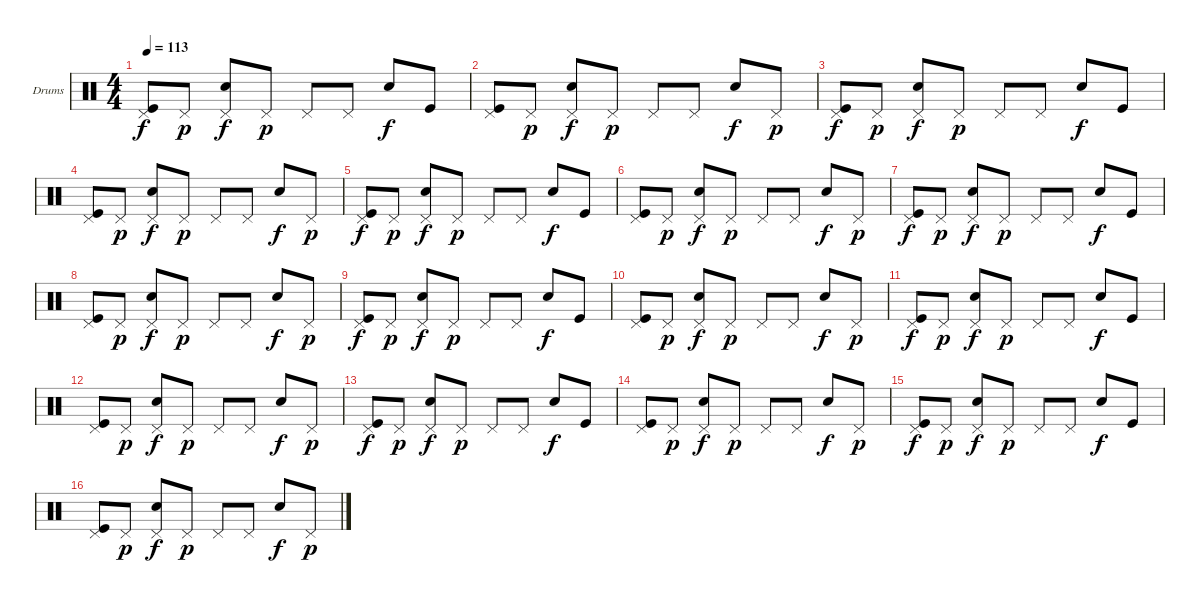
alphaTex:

\defaultSystemsLayout 4
\bracketExtendMode groupsimilarinstruments
\firstSystemTrackNameOrientation horizontal
\otherSystemsTrackNameOrientation horizontal
\track ("Е. Кулаков" "Drums") {instrument percussion}
\staff {score}
\articulation defaults
\ts (4 4)
\tempo 113
\clef neutral
\ks c
("Kick (hit)" "Pedal Hi-Hat (hit)").8{dy f} "Pedal Hi-Hat (hit)".8{dy p} ("Snare (hit) 2" "Pedal Hi-Hat (hit)").8{dy f} "Pedal Hi-Hat (hit)".8{dy p} "Pedal Hi-Hat (hit)".8 "Pedal Hi-Hat (hit)".8 "Snare (hit) 2".8{dy f} "Kick (hit)".8 |
("Kick (hit)" "Pedal Hi-Hat (hit)").8 "Pedal Hi-Hat (hit)".8{dy p} ("Snare (hit) 2" "Pedal Hi-Hat (hit)").8{dy f} "Pedal Hi-Hat (hit)".8{dy p} "Pedal Hi-Hat (hit)".8 "Pedal Hi-Hat (hit)".8 "Snare (hit) 2".8{dy f} "Pedal Hi-Hat (hit)".8{dy p} |
("Kick (hit)" "Pedal Hi-Hat (hit)").8{dy f} "Pedal Hi-Hat (hit)".8{dy p} ("Snare (hit) 2" "Pedal Hi-Hat (hit)").8{dy f} "Pedal Hi-Hat (hit)".8{dy p} "Pedal Hi-Hat (hit)".8 "Pedal Hi-Hat (hit)".8 "Snare (hit) 2".8{dy f} "Kick (hit)".8 |
("Kick (hit)" "Pedal Hi-Hat (hit)").8 "Pedal Hi-Hat (hit)".8{dy p} ("Snare (hit) 2" "Pedal Hi-Hat (hit)").8{dy f} "Pedal Hi-Hat (hit)".8{dy p} "Pedal Hi-Hat (hit)".8 "Pedal Hi-Hat (hit)".8 "Snare (hit) 2".8{dy f} "Pedal Hi-Hat (hit)".8{dy p} |
("Kick (hit)" "Pedal Hi-Hat (hit)").8{dy f} "Pedal Hi-Hat (hit)".8{dy p} ("Snare (hit) 2" "Pedal Hi-Hat (hit)").8{dy f} "Pedal Hi-Hat (hit)".8{dy p} "Pedal Hi-Hat (hit)".8 "Pedal Hi-Hat (hit)".8 "Snare (hit) 2".8{dy f} "Kick (hit)".8 |
("Kick (hit)" "Pedal Hi-Hat (hit)").8 "Pedal Hi-Hat (hit)".8{dy p} ("Snare (hit) 2" "Pedal Hi-Hat (hit)").8{dy f} "Pedal Hi-Hat (hit)".8{dy p} "Pedal Hi-Hat (hit)".8 "Pedal Hi-Hat (hit)".8 "Snare (hit) 2".8{dy f} "Pedal Hi-Hat (hit)".8{dy p} |
("Kick (hit)" "Pedal Hi-Hat (hit)").8{dy f} "Pedal Hi-Hat (hit)".8{dy p} ("Snare (hit) 2" "Pedal Hi-Hat (hit)").8{dy f} "Pedal Hi-Hat (hit)".8{dy p} "Pedal Hi-Hat (hit)".8 "Pedal Hi-Hat (hit)".8 "Snare (hit) 2".8{dy f} "Kick (hit)".8 |
("Kick (hit)" "Pedal Hi-Hat (hit)").8 "Pedal Hi-Hat (hit)".8{dy p} ("Snare (hit) 2" "Pedal Hi-Hat (hit)").8{dy f} "Pedal Hi-Hat (hit)".8{dy p} "Pedal Hi-Hat (hit)".8 "Pedal Hi-Hat (hit)".8 "Snare (hit) 2".8{dy f} "Pedal Hi-Hat (hit)".8{dy p} |
("Kick (hit)" "Pedal Hi-Hat (hit)").8{dy f} "Pedal Hi-Hat (hit)".8{dy p} ("Snare (hit) 2" "Pedal Hi-Hat (hit)").8{dy f} "Pedal Hi-Hat (hit)".8{dy p} "Pedal Hi-Hat (hit)".8 "Pedal Hi-Hat (hit)".8 "Snare (hit) 2".8{dy f} "Kick (hit)".8 |
("Kick (hit)" "Pedal Hi-Hat (hit)").8 "Pedal Hi-Hat (hit)".8{dy p} ("Snare (hit) 2" "Pedal Hi-Hat (hit)").8{dy f} "Pedal Hi-Hat (hit)".8{dy p} "Pedal Hi-Hat (hit)".8 "Pedal Hi-Hat (hit)".8 "Snare (hit) 2".8{dy f} "Pedal Hi-Hat (hit)".8{dy p} |
("Kick (hit)" "Pedal Hi-Hat (hit)").8{dy f} "Pedal Hi-Hat (hit)".8{dy p} ("Snare (hit) 2" "Pedal Hi-Hat (hit)").8{dy f} "Pedal Hi-Hat (hit)".8{dy p} "Pedal Hi-Hat (hit)".8 "Pedal Hi-Hat (hit)".8 "Snare (hit) 2".8{dy f} "Kick (hit)".8 |
("Kick (hit)" "Pedal Hi-Hat (hit)").8 "Pedal Hi-Hat (hit)".8{dy p} ("Snare (hit) 2" "Pedal Hi-Hat (hit)").8{dy f} "Pedal Hi-Hat (hit)".8{dy p} "Pedal Hi-Hat (hit)".8 "Pedal Hi-Hat (hit)".8 "Snare (hit) 2".8{dy f} "Pedal Hi-Hat (hit)".8{dy p} |
("Kick (hit)" "Pedal Hi-Hat (hit)").8{dy f} "Pedal Hi-Hat (hit)".8{dy p} ("Snare (hit) 2" "Pedal Hi-Hat (hit)").8{dy f} "Pedal Hi-Hat (hit)".8{dy p} "Pedal Hi-Hat (hit)".8 "Pedal Hi-Hat (hit)".8 "Snare (hit) 2".8{dy f} "Kick (hit)".8 |
("Kick (hit)" "Pedal Hi-Hat (hit)").8 "Pedal Hi-Hat (hit)".8{dy p} ("Snare (hit) 2" "Pedal Hi-Hat (hit)").8{dy f} "Pedal Hi-Hat (hit)".8{dy p} "Pedal Hi-Hat (hit)".8 "Pedal Hi-Hat (hit)".8 "Snare (hit) 2".8{dy f} "Pedal Hi-Hat (hit)".8{dy p} |
("Kick (hit)" "Pedal Hi-Hat (hit)").8{dy f} "Pedal Hi-Hat (hit)".8{dy p} ("Snare (hit) 2" "Pedal Hi-Hat (hit)").8{dy f} "Pedal Hi-Hat (hit)".8{dy p} "Pedal Hi-Hat (hit)".8 "Pedal Hi-Hat (hit)".8 "Snare (hit) 2".8{dy f} "Kick (hit)".8 |
("Kick (hit)" "Pedal Hi-Hat (hit)").8 "Pedal Hi-Hat (hit)".8{dy p} ("Snare (hit) 2" "Pedal Hi-Hat (hit)").8{dy f} "Pedal Hi-Hat (hit)".8{dy p} "Pedal Hi-Hat (hit)".8 "Pedal Hi-Hat (hit)".8 "Snare (hit) 2".8{dy f} "Pedal Hi-Hat (hit)".8{dy p}
